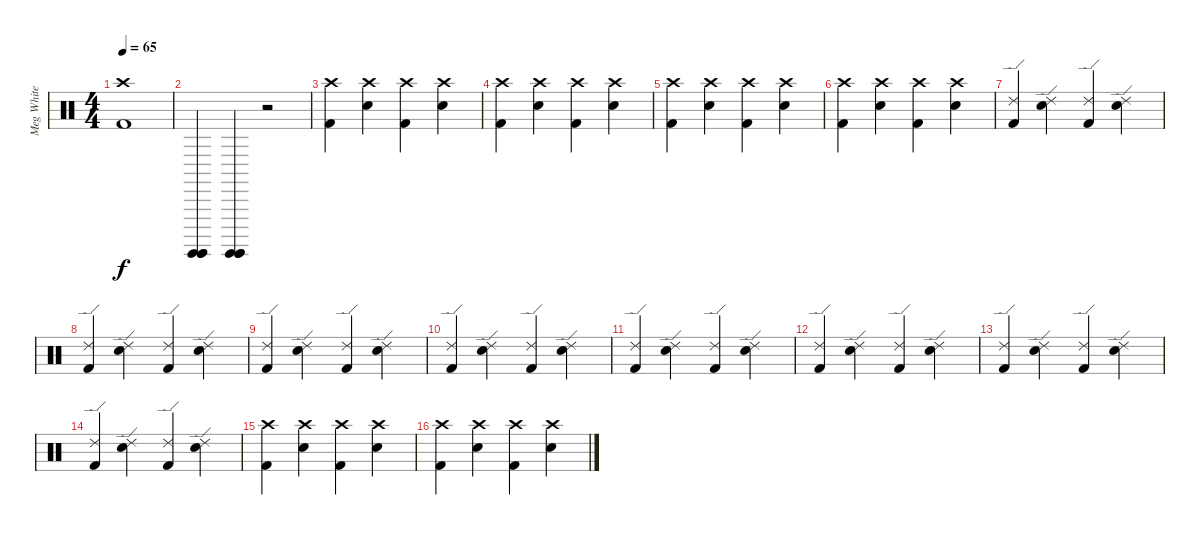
\track ("Meg White" "Meg White") {instrument percussion}
\staff {score}
\articulation defaults
\ts (4 4)
\tempo 65
\clef neutral
\ks c
("Kick (hit) 2" "Crash high (hit)").1{dy f} |
("Surdo (hit)" "Surdo (hit)" "Surdo (hit)").4 ("Surdo (hit)" "Surdo (hit)" "Surdo (hit)").4 r.2 |
("Kick (hit) 2" "Crash high (hit)").4 ("Electric Snare (hit)" "Crash high (hit)").4 ("Kick (hit) 2" "Crash high (hit)").4 ("Electric Snare (hit)" "Crash high (hit)").4 |
("Kick (hit) 2" "Crash high (hit)").4 ("Electric Snare (hit)" "Crash high (hit)").4 ("Kick (hit) 2" "Crash high (hit)").4 ("Electric Snare (hit)" "Crash high (hit)").4 |
("Kick (hit) 2" "Crash high (hit)").4 ("Electric Snare (hit)" "Crash high (hit)").4 ("Kick (hit) 2" "Crash high (hit)").4 ("Electric Snare (hit)" "Crash high (hit)").4 |
("Kick (hit) 2" "Crash high (hit)").4 ("Electric Snare (hit)" "Crash high (hit)").4 ("Kick (hit) 2" "Crash high (hit)").4 ("Electric Snare (hit)" "Crash high (hit)").4 |
("Kick (hit) 2" "Ride (edge) 2").4 ("Electric Snare (hit)" "Ride (edge) 2").4 ("Kick (hit) 2" "Ride (edge) 2").4 ("Electric Snare (hit)" "Ride (edge) 2").4 |
("Kick (hit) 2" "Ride (edge) 2").4 ("Electric Snare (hit)" "Ride (edge) 2").4 ("Kick (hit) 2" "Ride (edge) 2").4 ("Electric Snare (hit)" "Ride (edge) 2").4 |
("Kick (hit) 2" "Ride (edge) 2").4 ("Electric Snare (hit)" "Ride (edge) 2").4 ("Kick (hit) 2" "Ride (edge) 2").4 ("Electric Snare (hit)" "Ride (edge) 2").4 |
("Kick (hit) 2" "Ride (edge) 2").4 ("Electric Snare (hit)" "Ride (edge) 2").4 ("Kick (hit) 2" "Ride (edge) 2").4 ("Electric Snare (hit)" "Ride (edge) 2").4 |
("Kick (hit) 2" "Ride (edge) 2").4 ("Electric Snare (hit)" "Ride (edge) 2").4 ("Kick (hit) 2" "Ride (edge) 2").4 ("Electric Snare (hit)" "Ride (edge) 2").4 |
("Kick (hit) 2" "Ride (edge) 2").4 ("Electric Snare (hit)" "Ride (edge) 2").4 ("Kick (hit) 2" "Ride (edge) 2").4 ("Electric Snare (hit)" "Ride (edge) 2").4 |
("Kick (hit) 2" "Ride (edge) 2").4 ("Electric Snare (hit)" "Ride (edge) 2").4 ("Kick (hit) 2" "Ride (edge) 2").4 ("Electric Snare (hit)" "Ride (edge) 2").4 |
("Kick (hit) 2" "Ride (edge) 2").4 ("Electric Snare (hit)" "Ride (edge) 2").4 ("Kick (hit) 2" "Ride (edge) 2").4 ("Electric Snare (hit)" "Ride (edge) 2").4 |
("Kick (hit) 2" "Crash high (hit)").4 ("Electric Snare (hit)" "Crash high (hit)").4 ("Kick (hit) 2" "Crash high (hit)").4 ("Electric Snare (hit)" "Crash high (hit)").4 |
("Kick (hit) 2" "Crash high (hit)").4 ("Electric Snare (hit)" "Crash high (hit)").4 ("Kick (hit) 2" "Crash high (hit)").4 ("Electric Snare (hit)" "Crash high (hit)").4
